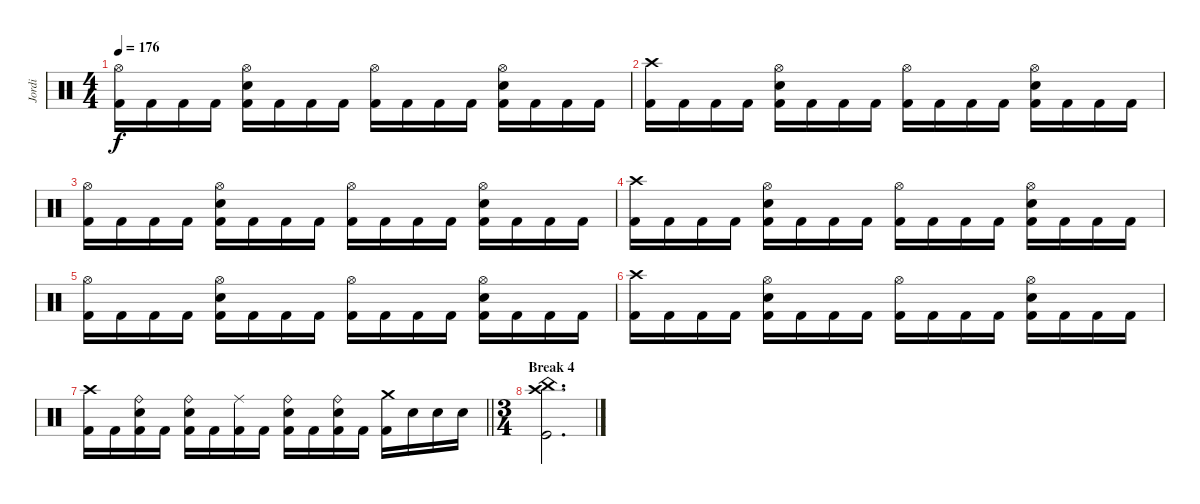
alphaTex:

\track ("Jordi" "Jordi") {instrument percussion}
\staff {score}
\articulation defaults
\ts (4 4)
\tempo 176
\clef neutral
\ks c
("Hi-Hat (open)" "Kick (hit) 2").16{dy f} "Kick (hit) 2".16 "Kick (hit) 2".16 "Kick (hit) 2".16 ("Hi-Hat (open)" "Snare (hit) 2" "Kick (hit) 2").16 "Kick (hit) 2".16 "Kick (hit) 2".16 "Kick (hit) 2".16 ("Hi-Hat (open)" "Kick (hit) 2").16 "Kick (hit) 2".16 "Kick (hit) 2".16 "Kick (hit) 2".16 ("Hi-Hat (open)" "Snare (hit) 2" "Kick (hit) 2").16 "Kick (hit) 2".16 "Kick (hit) 2".16 "Kick (hit) 2".16 |
("Crash high (hit)" "Kick (hit) 2").16 "Kick (hit) 2".16 "Kick (hit) 2".16 "Kick (hit) 2".16 ("Hi-Hat (open)" "Snare (hit) 2" "Kick (hit) 2").16 "Kick (hit) 2".16 "Kick (hit) 2".16 "Kick (hit) 2".16 ("Hi-Hat (open)" "Kick (hit) 2").16 "Kick (hit) 2".16 "Kick (hit) 2".16 "Kick (hit) 2".16 ("Hi-Hat (open)" "Snare (hit) 2" "Kick (hit) 2").16 "Kick (hit) 2".16 "Kick (hit) 2".16 "Kick (hit) 2".16 |
("Hi-Hat (open)" "Kick (hit) 2").16 "Kick (hit) 2".16 "Kick (hit) 2".16 "Kick (hit) 2".16 ("Hi-Hat (open)" "Snare (hit) 2" "Kick (hit) 2").16 "Kick (hit) 2".16 "Kick (hit) 2".16 "Kick (hit) 2".16 ("Hi-Hat (open)" "Kick (hit) 2").16 "Kick (hit) 2".16 "Kick (hit) 2".16 "Kick (hit) 2".16 ("Hi-Hat (open)" "Snare (hit) 2" "Kick (hit) 2").16 "Kick (hit) 2".16 "Kick (hit) 2".16 "Kick (hit) 2".16 |
("Crash high (hit)" "Kick (hit) 2").16 "Kick (hit) 2".16 "Kick (hit) 2".16 "Kick (hit) 2".16 ("Hi-Hat (open)" "Snare (hit) 2" "Kick (hit) 2").16 "Kick (hit) 2".16 "Kick (hit) 2".16 "Kick (hit) 2".16 ("Hi-Hat (open)" "Kick (hit) 2").16 "Kick (hit) 2".16 "Kick (hit) 2".16 "Kick (hit) 2".16 ("Hi-Hat (open)" "Snare (hit) 2" "Kick (hit) 2").16 "Kick (hit) 2".16 "Kick (hit) 2".16 "Kick (hit) 2".16 |
("Hi-Hat (open)" "Kick (hit) 2").16 "Kick (hit) 2".16 "Kick (hit) 2".16 "Kick (hit) 2".16 ("Hi-Hat (open)" "Snare (hit) 2" "Kick (hit) 2").16 "Kick (hit) 2".16 "Kick (hit) 2".16 "Kick (hit) 2".16 ("Hi-Hat (open)" "Kick (hit) 2").16 "Kick (hit) 2".16 "Kick (hit) 2".16 "Kick (hit) 2".16 ("Hi-Hat (open)" "Snare (hit) 2" "Kick (hit) 2").16 "Kick (hit) 2".16 "Kick (hit) 2".16 "Kick (hit) 2".16 |
("Crash high (hit)" "Kick (hit) 2").16 "Kick (hit) 2".16 "Kick (hit) 2".16 "Kick (hit) 2".16 ("Hi-Hat (open)" "Snare (hit) 2" "Kick (hit) 2").16 "Kick (hit) 2".16 "Kick (hit) 2".16 "Kick (hit) 2".16 ("Hi-Hat (open)" "Kick (hit) 2").16 "Kick (hit) 2".16 "Kick (hit) 2".16 "Kick (hit) 2".16 ("Hi-Hat (open)" "Snare (hit) 2" "Kick (hit) 2").16 "Kick (hit) 2".16 "Kick (hit) 2".16 "Kick (hit) 2".16 |
\barLineRight lightlight
("Crash high (hit)" "Kick (hit) 2").16 "Kick (hit) 2".16 ("Ride (bell)" "Snare (hit) 2" "Kick (hit) 2").16 "Kick (hit) 2".16 ("Ride (bell)" "Snare (hit) 2" "Kick (hit) 2").16 "Kick (hit) 2".16 ("Ride (middle)" "Kick (hit) 2").16 "Kick (hit) 2".16 ("Ride (bell)" "Snare (hit) 2" "Kick (hit) 2").16 "Kick (hit) 2".16 ("Ride (bell)" "Snare (hit) 2" "Kick (hit) 2").16 "Kick (hit) 2".16 ("Crash medium (hit)" "Kick (hit) 2").16 "Snare (hit) 2".16 "Snare (hit) 2".16 "Snare (hit) 2".16 |
\ts (3 4)
\section ("" "Break 4")
("Crash high (hit)" "China (hit)" "Kick (hit)").2{d}
